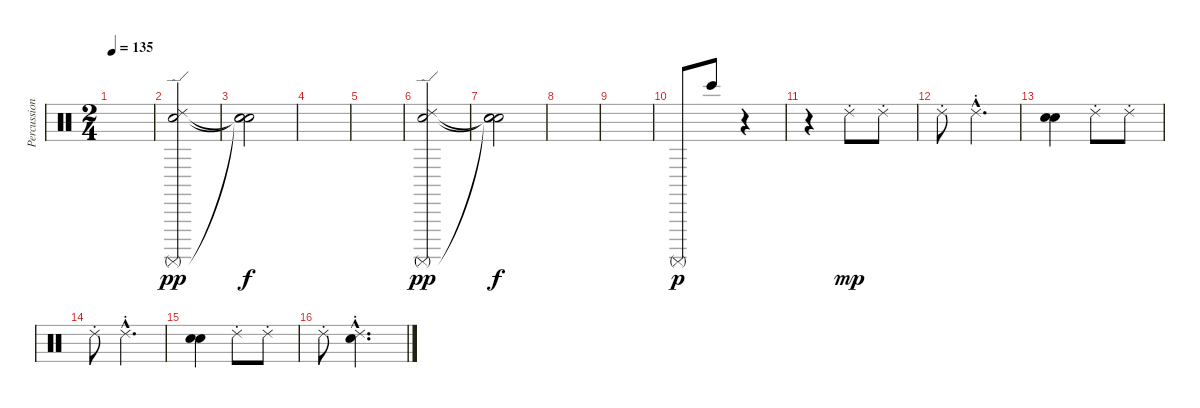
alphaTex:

\track ("Percussions" "Percussion") {instrument percussion}
\staff {score}
\articulation defaults
\ts (2 4)
\tempo 135
\clef neutral
\ks c
|
("Electric Snare (hit)" "Ride (edge) 2" "Surdo (mute)").2{dy pp} |
("Snare (hit)"{t} "Snare (hit)"{t} "Snare (hit)"{t}).2{dy f} |
|
|
("Electric Snare (hit)" "Ride (edge) 2" "Surdo (mute)").2{dy pp} |
("Snare (hit)"{t} "Snare (hit)"{t} "Snare (hit)"{t}).2{dy f} |
|
|
"Surdo (mute)".8{dy p} "Bongo High (hit)".8 r.4 |
r.4 "Ride (choke) 2".8{dy mp} "Ride (choke) 2".8 |
"Ride (choke) 2".8 "Ride (choke) 2"{hac}.4{d} |
("Electric Snare (hit)" "Snare (hit) 2").4 "Ride (choke) 2".8 "Ride (choke) 2".8 |
"Ride (choke) 2".8 "Ride (choke) 2"{hac}.4{d} |
("Electric Snare (hit)" "Snare (hit) 2").4 "Ride (choke) 2".8 "Ride (choke) 2".8 |
"Ride (choke) 2".8 ("Snare (hit) 2"{hac} "Ride (choke) 2"{hac}).4{d}
